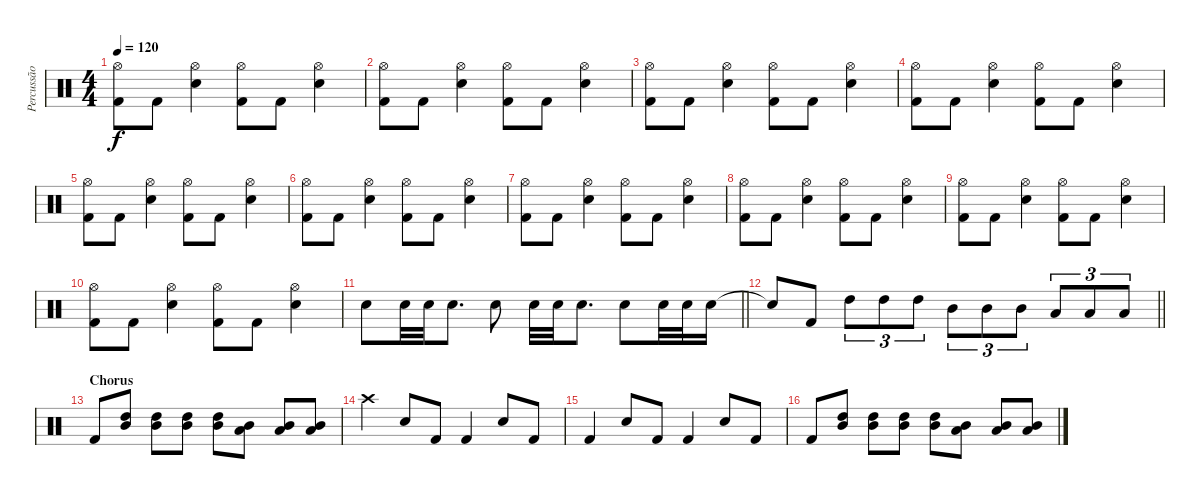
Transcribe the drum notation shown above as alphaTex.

\track ("Percussão" "Percussão") {instrument percussion}
\staff {score}
\articulation defaults
\ts (4 4)
\tempo 120
\clef neutral
\ks c
("Hi-Hat (open)" "Kick (hit) 2").8{dy f} "Kick (hit) 2".8 ("Hi-Hat (open)" "Snare (hit) 2").4 ("Hi-Hat (open)" "Kick (hit) 2").8 "Kick (hit) 2".8 ("Hi-Hat (open)" "Snare (hit) 2").4 |
("Hi-Hat (open)" "Kick (hit) 2").8 "Kick (hit) 2".8 ("Hi-Hat (open)" "Snare (hit) 2").4 ("Hi-Hat (open)" "Kick (hit) 2").8 "Kick (hit) 2".8 ("Hi-Hat (open)" "Snare (hit) 2").4 |
("Hi-Hat (open)" "Kick (hit) 2").8 "Kick (hit) 2".8 ("Hi-Hat (open)" "Snare (hit) 2").4 ("Hi-Hat (open)" "Kick (hit) 2").8 "Kick (hit) 2".8 ("Hi-Hat (open)" "Snare (hit) 2").4 |
("Hi-Hat (open)" "Kick (hit) 2").8 "Kick (hit) 2".8 ("Hi-Hat (open)" "Snare (hit) 2").4 ("Hi-Hat (open)" "Kick (hit) 2").8 "Kick (hit) 2".8 ("Hi-Hat (open)" "Snare (hit) 2").4 |
("Hi-Hat (open)" "Kick (hit) 2").8 "Kick (hit) 2".8 ("Hi-Hat (open)" "Snare (hit) 2").4 ("Hi-Hat (open)" "Kick (hit) 2").8 "Kick (hit) 2".8 ("Hi-Hat (open)" "Snare (hit) 2").4 |
("Hi-Hat (open)" "Kick (hit) 2").8 "Kick (hit) 2".8 ("Hi-Hat (open)" "Snare (hit) 2").4 ("Hi-Hat (open)" "Kick (hit) 2").8 "Kick (hit) 2".8 ("Hi-Hat (open)" "Snare (hit) 2").4 |
("Hi-Hat (open)" "Kick (hit) 2").8 "Kick (hit) 2".8 ("Hi-Hat (open)" "Snare (hit) 2").4 ("Hi-Hat (open)" "Kick (hit) 2").8 "Kick (hit) 2".8 ("Hi-Hat (open)" "Snare (hit) 2").4 |
("Hi-Hat (open)" "Kick (hit) 2").8 "Kick (hit) 2".8 ("Hi-Hat (open)" "Snare (hit) 2").4 ("Hi-Hat (open)" "Kick (hit) 2").8 "Kick (hit) 2".8 ("Hi-Hat (open)" "Snare (hit) 2").4 |
("Hi-Hat (open)" "Kick (hit) 2").8 "Kick (hit) 2".8 ("Hi-Hat (open)" "Snare (hit) 2").4 ("Hi-Hat (open)" "Kick (hit) 2").8 "Kick (hit) 2".8 ("Hi-Hat (open)" "Snare (hit) 2").4 |
("Hi-Hat (open)" "Kick (hit) 2").8 "Kick (hit) 2".8 ("Hi-Hat (open)" "Snare (hit) 2").4 ("Hi-Hat (open)" "Kick (hit) 2").8 "Kick (hit) 2".8 ("Hi-Hat (open)" "Snare (hit) 2").4 |
\barLineRight lightlight "Snare (hit) 2".8 "Snare (hit) 2".32 "Snare (hit) 2".32 "Snare (hit) 2".8{d} "Snare (hit) 2".8 "Snare (hit) 2".32 "Snare (hit) 2".32 "Snare (hit) 2".8{d} "Snare (hit) 2".8 "Snare (hit) 2".32 "Snare (hit) 2".32 "Snare (hit) 2".16
|
\barLineRight lightlight "Snare (hit) 2"{t}.8 "Kick (hit) 2".8 "High Tom (hit)".8{tu (3 2)} "High Tom (hit)".8{tu (3 2)} "High Tom (hit)".8{tu (3 2)} "Mid Tom (hit)".8{tu (3 2)} "Mid Tom (hit)".8{tu (3 2)} "Mid Tom (hit)".8{tu (3 2)} "Low Tom (hit)".8{tu (3 2)} "Low Tom (hit)".8{tu (3 2)} "Low Tom (hit)".8{tu (3 2)}
|
\section ("" "Chorus")
"Kick (hit) 2".8 ("High Tom (hit)" "Mid Tom (hit)").8 ("High Tom (hit)" "Mid Tom (hit)").8 ("High Tom (hit)" "Mid Tom (hit)").8 ("High Tom (hit)" "Mid Tom (hit)").8 ("Mid Tom (hit)" "Low Tom (hit)").8 ("Mid Tom (hit)" "Low Tom (hit)").8 ("Mid Tom (hit)" "Low Tom (hit)").8 |
"Crash high (hit)".4 "Snare (hit) 2".8 "Kick (hit) 2".8 "Kick (hit) 2".4 "Snare (hit) 2".8 "Kick (hit) 2".8 |
"Kick (hit) 2".4 "Snare (hit) 2".8 "Kick (hit) 2".8 "Kick (hit) 2".4 "Snare (hit) 2".8 "Kick (hit) 2".8 |
"Kick (hit) 2".8 ("High Tom (hit)" "Mid Tom (hit)").8 ("High Tom (hit)" "Mid Tom (hit)").8 ("High Tom (hit)" "Mid Tom (hit)").8 ("High Tom (hit)" "Mid Tom (hit)").8 ("Mid Tom (hit)" "Low Tom (hit)").8 ("Mid Tom (hit)" "Low Tom (hit)").8 ("Mid Tom (hit)" "Low Tom (hit)").8
